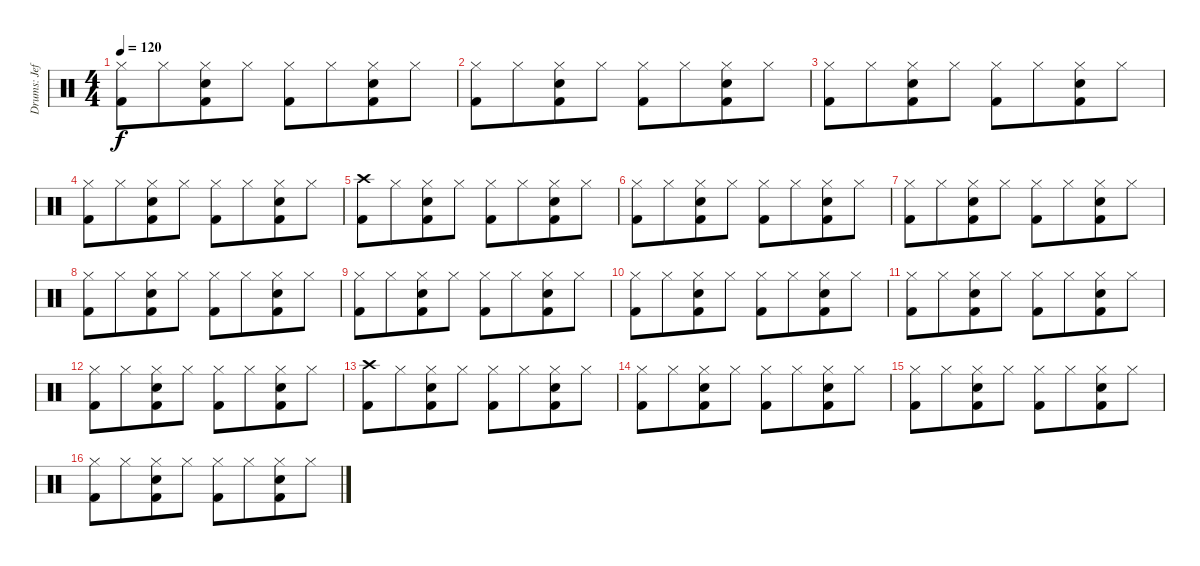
\track ("Drums: Jeff" "Drums: Jef") {instrument percussion}
\staff {score}
\articulation defaults
\ts (4 4)
\tempo 120
\clef neutral
\ks c
("Hi-Hat (closed)" "Kick (hit) 2").8{dy f} "Hi-Hat (closed)".8{beam merge} ("Hi-Hat (closed)" "Electric Snare (hit)" "Kick (hit) 2").8 "Hi-Hat (closed)".8 ("Hi-Hat (closed)" "Kick (hit) 2").8 "Hi-Hat (closed)".8{beam merge} ("Hi-Hat (closed)" "Electric Snare (hit)" "Kick (hit) 2").8 "Hi-Hat (closed)".8 |
("Hi-Hat (closed)" "Kick (hit) 2").8 "Hi-Hat (closed)".8{beam merge} ("Hi-Hat (closed)" "Electric Snare (hit)" "Kick (hit) 2").8 "Hi-Hat (closed)".8 ("Hi-Hat (closed)" "Kick (hit) 2").8 "Hi-Hat (closed)".8{beam merge} ("Hi-Hat (closed)" "Electric Snare (hit)" "Kick (hit) 2").8 "Hi-Hat (closed)".8 |
("Hi-Hat (closed)" "Kick (hit) 2").8 "Hi-Hat (closed)".8{beam merge} ("Hi-Hat (closed)" "Electric Snare (hit)" "Kick (hit) 2").8 "Hi-Hat (closed)".8 ("Hi-Hat (closed)" "Kick (hit) 2").8 "Hi-Hat (closed)".8{beam merge} ("Hi-Hat (closed)" "Electric Snare (hit)" "Kick (hit) 2").8 "Hi-Hat (closed)".8 |
("Hi-Hat (closed)" "Kick (hit) 2").8 "Hi-Hat (closed)".8{beam merge} ("Hi-Hat (closed)" "Electric Snare (hit)" "Kick (hit) 2").8 "Hi-Hat (closed)".8 ("Hi-Hat (closed)" "Kick (hit) 2").8 "Hi-Hat (closed)".8{beam merge} ("Hi-Hat (closed)" "Electric Snare (hit)" "Kick (hit) 2").8 "Hi-Hat (closed)".8 |
("Crash high (hit)" "Kick (hit) 2").8 "Hi-Hat (closed)".8{beam merge} ("Hi-Hat (closed)" "Electric Snare (hit)" "Kick (hit) 2").8 "Hi-Hat (closed)".8 ("Hi-Hat (closed)" "Kick (hit) 2").8 "Hi-Hat (closed)".8{beam merge} ("Hi-Hat (closed)" "Electric Snare (hit)" "Kick (hit) 2").8 "Hi-Hat (closed)".8 |
("Hi-Hat (closed)" "Kick (hit) 2").8 "Hi-Hat (closed)".8{beam merge} ("Hi-Hat (closed)" "Electric Snare (hit)" "Kick (hit) 2").8 "Hi-Hat (closed)".8 ("Hi-Hat (closed)" "Kick (hit) 2").8 "Hi-Hat (closed)".8{beam merge} ("Hi-Hat (closed)" "Electric Snare (hit)" "Kick (hit) 2").8 "Hi-Hat (closed)".8 |
("Hi-Hat (closed)" "Kick (hit) 2").8 "Hi-Hat (closed)".8{beam merge} ("Hi-Hat (closed)" "Electric Snare (hit)" "Kick (hit) 2").8 "Hi-Hat (closed)".8 ("Hi-Hat (closed)" "Kick (hit) 2").8 "Hi-Hat (closed)".8{beam merge} ("Hi-Hat (closed)" "Electric Snare (hit)" "Kick (hit) 2").8 "Hi-Hat (closed)".8 |
("Hi-Hat (closed)" "Kick (hit) 2").8 "Hi-Hat (closed)".8{beam merge} ("Hi-Hat (closed)" "Electric Snare (hit)" "Kick (hit) 2").8 "Hi-Hat (closed)".8 ("Hi-Hat (closed)" "Kick (hit) 2").8 "Hi-Hat (closed)".8{beam merge} ("Hi-Hat (closed)" "Electric Snare (hit)" "Kick (hit) 2").8 "Hi-Hat (closed)".8 |
("Hi-Hat (closed)" "Kick (hit) 2").8 "Hi-Hat (closed)".8{beam merge} ("Hi-Hat (closed)" "Electric Snare (hit)" "Kick (hit) 2").8 "Hi-Hat (closed)".8 ("Hi-Hat (closed)" "Kick (hit) 2").8 "Hi-Hat (closed)".8{beam merge} ("Hi-Hat (closed)" "Electric Snare (hit)" "Kick (hit) 2").8 "Hi-Hat (closed)".8 |
("Hi-Hat (closed)" "Kick (hit) 2").8 "Hi-Hat (closed)".8{beam merge} ("Hi-Hat (closed)" "Electric Snare (hit)" "Kick (hit) 2").8 "Hi-Hat (closed)".8 ("Hi-Hat (closed)" "Kick (hit) 2").8 "Hi-Hat (closed)".8{beam merge} ("Hi-Hat (closed)" "Electric Snare (hit)" "Kick (hit) 2").8 "Hi-Hat (closed)".8 |
("Hi-Hat (closed)" "Kick (hit) 2").8 "Hi-Hat (closed)".8{beam merge} ("Hi-Hat (closed)" "Electric Snare (hit)" "Kick (hit) 2").8 "Hi-Hat (closed)".8 ("Hi-Hat (closed)" "Kick (hit) 2").8 "Hi-Hat (closed)".8{beam merge} ("Hi-Hat (closed)" "Electric Snare (hit)" "Kick (hit) 2").8 "Hi-Hat (closed)".8 |
("Hi-Hat (closed)" "Kick (hit) 2").8 "Hi-Hat (closed)".8{beam merge} ("Hi-Hat (closed)" "Electric Snare (hit)" "Kick (hit) 2").8 "Hi-Hat (closed)".8 ("Hi-Hat (closed)" "Kick (hit) 2").8 "Hi-Hat (closed)".8{beam merge} ("Hi-Hat (closed)" "Electric Snare (hit)" "Kick (hit) 2").8 "Hi-Hat (closed)".8 |
("Crash high (hit)" "Kick (hit) 2").8 "Hi-Hat (closed)".8{beam merge} ("Hi-Hat (closed)" "Electric Snare (hit)" "Kick (hit) 2").8 "Hi-Hat (closed)".8 ("Hi-Hat (closed)" "Kick (hit) 2").8 "Hi-Hat (closed)".8{beam merge} ("Hi-Hat (closed)" "Electric Snare (hit)" "Kick (hit) 2").8 "Hi-Hat (closed)".8 |
("Hi-Hat (closed)" "Kick (hit) 2").8 "Hi-Hat (closed)".8{beam merge} ("Hi-Hat (closed)" "Electric Snare (hit)" "Kick (hit) 2").8 "Hi-Hat (closed)".8 ("Hi-Hat (closed)" "Kick (hit) 2").8 "Hi-Hat (closed)".8{beam merge} ("Hi-Hat (closed)" "Electric Snare (hit)" "Kick (hit) 2").8 "Hi-Hat (closed)".8 |
("Hi-Hat (closed)" "Kick (hit) 2").8 "Hi-Hat (closed)".8{beam merge} ("Hi-Hat (closed)" "Electric Snare (hit)" "Kick (hit) 2").8 "Hi-Hat (closed)".8 ("Hi-Hat (closed)" "Kick (hit) 2").8 "Hi-Hat (closed)".8{beam merge} ("Hi-Hat (closed)" "Electric Snare (hit)" "Kick (hit) 2").8 "Hi-Hat (closed)".8 |
("Hi-Hat (closed)" "Kick (hit) 2").8 "Hi-Hat (closed)".8{beam merge} ("Hi-Hat (closed)" "Electric Snare (hit)" "Kick (hit) 2").8 "Hi-Hat (closed)".8 ("Hi-Hat (closed)" "Kick (hit) 2").8 "Hi-Hat (closed)".8{beam merge} ("Hi-Hat (closed)" "Electric Snare (hit)" "Kick (hit) 2").8 "Hi-Hat (closed)".8
